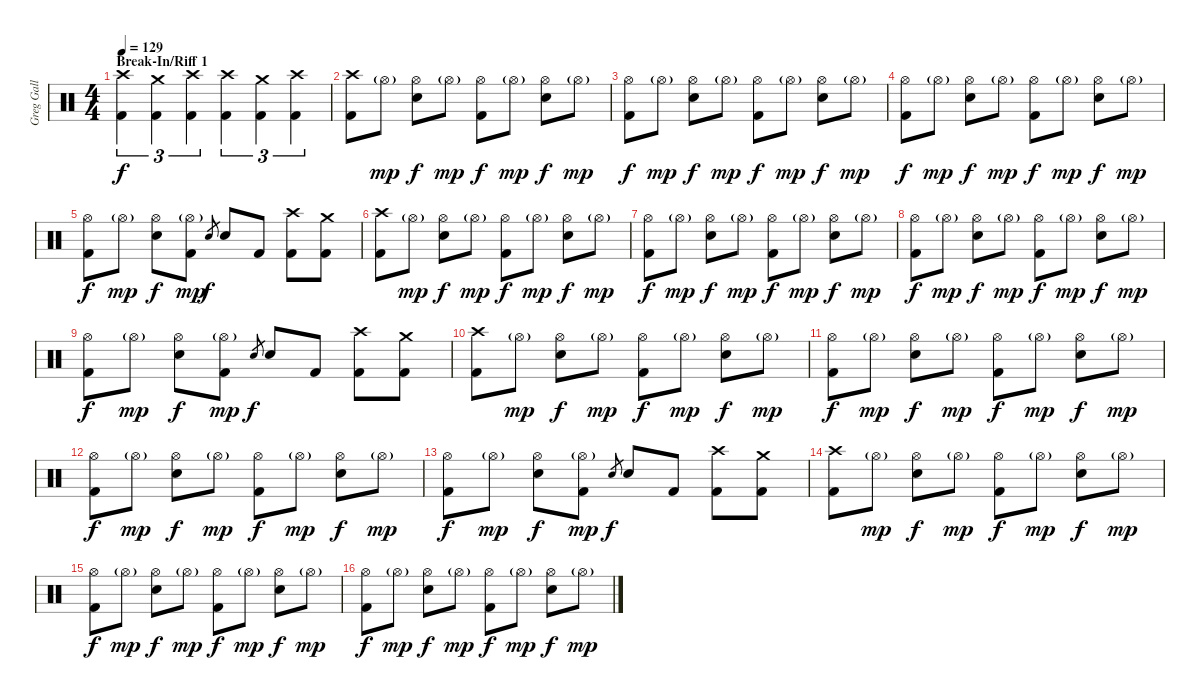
\track ("Greg Gall (Drums)" "Greg Gall ") {instrument percussion}
\staff {score}
\articulation defaults
\ts (4 4)
\section ("" "Break-In/Riff 1")
\tempo 129
\clef neutral
\ks c
("Crash high (hit)" "Kick (hit) 2").4{tu (3 2) dy f} ("Crash medium (hit)" "Kick (hit) 2").4{tu (3 2)} ("Crash high (hit)" "Kick (hit) 2").4{tu (3 2)} ("Crash high (hit)" "Kick (hit) 2").4{tu (3 2)} ("Crash medium (hit)" "Kick (hit) 2").4{tu (3 2)} ("Crash high (hit)" "Kick (hit) 2").4{tu (3 2)} |
("Crash high (hit)" "Kick (hit) 2").8 "Hi-Hat (open)"{g}.8{dy mp} ("Hi-Hat (open)" "Electric Snare (hit)").8{dy f} "Hi-Hat (open)"{g}.8{dy mp} ("Hi-Hat (open)" "Kick (hit) 2").8{dy f} "Hi-Hat (open)"{g}.8{dy mp} ("Hi-Hat (open)" "Electric Snare (hit)").8{dy f} "Hi-Hat (open)"{g}.8{dy mp} |
("Hi-Hat (open)" "Kick (hit) 2").8{dy f} "Hi-Hat (open)"{g}.8{dy mp} ("Hi-Hat (open)" "Electric Snare (hit)").8{dy f} "Hi-Hat (open)"{g}.8{dy mp} ("Hi-Hat (open)" "Kick (hit) 2").8{dy f} "Hi-Hat (open)"{g}.8{dy mp} ("Hi-Hat (open)" "Electric Snare (hit)").8{dy f} "Hi-Hat (open)"{g}.8{dy mp} |
("Hi-Hat (open)" "Kick (hit) 2").8{dy f} "Hi-Hat (open)"{g}.8{dy mp} ("Hi-Hat (open)" "Electric Snare (hit)").8{dy f} "Hi-Hat (open)"{g}.8{dy mp} ("Hi-Hat (open)" "Kick (hit) 2").8{dy f} "Hi-Hat (open)"{g}.8{dy mp} ("Hi-Hat (open)" "Electric Snare (hit)").8{dy f} "Hi-Hat (open)"{g}.8{dy mp} |
("Hi-Hat (open)" "Kick (hit) 2").8{dy f} "Hi-Hat (open)"{g}.8{dy mp} ("Hi-Hat (open)" "Electric Snare (hit)").8{dy f} ("Hi-Hat (open)"{g} "Kick (hit) 2").8{dy mp} "Electric Snare (hit)".8{gr dy f} "Electric Snare (hit)".8 "Kick (hit) 2".8 ("Crash high (hit)" "Kick (hit) 2").8 ("Crash medium (hit)" "Kick (hit) 2").8 |
("Crash high (hit)" "Kick (hit) 2").8 "Hi-Hat (open)"{g}.8{dy mp} ("Hi-Hat (open)" "Electric Snare (hit)").8{dy f} "Hi-Hat (open)"{g}.8{dy mp} ("Hi-Hat (open)" "Kick (hit) 2").8{dy f} "Hi-Hat (open)"{g}.8{dy mp} ("Hi-Hat (open)" "Electric Snare (hit)").8{dy f} "Hi-Hat (open)"{g}.8{dy mp} |
("Hi-Hat (open)" "Kick (hit) 2").8{dy f} "Hi-Hat (open)"{g}.8{dy mp} ("Hi-Hat (open)" "Electric Snare (hit)").8{dy f} "Hi-Hat (open)"{g}.8{dy mp} ("Hi-Hat (open)" "Kick (hit) 2").8{dy f} "Hi-Hat (open)"{g}.8{dy mp} ("Hi-Hat (open)" "Electric Snare (hit)").8{dy f} "Hi-Hat (open)"{g}.8{dy mp} |
("Hi-Hat (open)" "Kick (hit) 2").8{dy f} "Hi-Hat (open)"{g}.8{dy mp} ("Hi-Hat (open)" "Electric Snare (hit)").8{dy f} "Hi-Hat (open)"{g}.8{dy mp} ("Hi-Hat (open)" "Kick (hit) 2").8{dy f} "Hi-Hat (open)"{g}.8{dy mp} ("Hi-Hat (open)" "Electric Snare (hit)").8{dy f} "Hi-Hat (open)"{g}.8{dy mp} |
("Hi-Hat (open)" "Kick (hit) 2").8{dy f} "Hi-Hat (open)"{g}.8{dy mp} ("Hi-Hat (open)" "Electric Snare (hit)").8{dy f} ("Hi-Hat (open)"{g} "Kick (hit) 2").8{dy mp} "Electric Snare (hit)".8{gr dy f} "Electric Snare (hit)".8 "Kick (hit) 2".8 ("Crash high (hit)" "Kick (hit) 2").8 ("Crash medium (hit)" "Kick (hit) 2").8 |
("Crash high (hit)" "Kick (hit) 2").8 "Hi-Hat (open)"{g}.8{dy mp} ("Hi-Hat (open)" "Electric Snare (hit)").8{dy f} "Hi-Hat (open)"{g}.8{dy mp} ("Hi-Hat (open)" "Kick (hit) 2").8{dy f} "Hi-Hat (open)"{g}.8{dy mp} ("Hi-Hat (open)" "Electric Snare (hit)").8{dy f} "Hi-Hat (open)"{g}.8{dy mp} |
("Hi-Hat (open)" "Kick (hit) 2").8{dy f} "Hi-Hat (open)"{g}.8{dy mp} ("Hi-Hat (open)" "Electric Snare (hit)").8{dy f} "Hi-Hat (open)"{g}.8{dy mp} ("Hi-Hat (open)" "Kick (hit) 2").8{dy f} "Hi-Hat (open)"{g}.8{dy mp} ("Hi-Hat (open)" "Electric Snare (hit)").8{dy f} "Hi-Hat (open)"{g}.8{dy mp} |
("Hi-Hat (open)" "Kick (hit) 2").8{dy f} "Hi-Hat (open)"{g}.8{dy mp} ("Hi-Hat (open)" "Electric Snare (hit)").8{dy f} "Hi-Hat (open)"{g}.8{dy mp} ("Hi-Hat (open)" "Kick (hit) 2").8{dy f} "Hi-Hat (open)"{g}.8{dy mp} ("Hi-Hat (open)" "Electric Snare (hit)").8{dy f} "Hi-Hat (open)"{g}.8{dy mp} |
("Hi-Hat (open)" "Kick (hit) 2").8{dy f} "Hi-Hat (open)"{g}.8{dy mp} ("Hi-Hat (open)" "Electric Snare (hit)").8{dy f} ("Hi-Hat (open)"{g} "Kick (hit) 2").8{dy mp} "Electric Snare (hit)".8{gr dy f} "Electric Snare (hit)".8 "Kick (hit) 2".8 ("Crash high (hit)" "Kick (hit) 2").8 ("Crash medium (hit)" "Kick (hit) 2").8 |
("Crash high (hit)" "Kick (hit) 2").8 "Hi-Hat (open)"{g}.8{dy mp} ("Hi-Hat (open)" "Electric Snare (hit)").8{dy f} "Hi-Hat (open)"{g}.8{dy mp} ("Hi-Hat (open)" "Kick (hit) 2").8{dy f} "Hi-Hat (open)"{g}.8{dy mp} ("Hi-Hat (open)" "Electric Snare (hit)").8{dy f} "Hi-Hat (open)"{g}.8{dy mp} |
("Hi-Hat (open)" "Kick (hit) 2").8{dy f} "Hi-Hat (open)"{g}.8{dy mp} ("Hi-Hat (open)" "Electric Snare (hit)").8{dy f} "Hi-Hat (open)"{g}.8{dy mp} ("Hi-Hat (open)" "Kick (hit) 2").8{dy f} "Hi-Hat (open)"{g}.8{dy mp} ("Hi-Hat (open)" "Electric Snare (hit)").8{dy f} "Hi-Hat (open)"{g}.8{dy mp} |
("Hi-Hat (open)" "Kick (hit) 2").8{dy f} "Hi-Hat (open)"{g}.8{dy mp} ("Hi-Hat (open)" "Electric Snare (hit)").8{dy f} "Hi-Hat (open)"{g}.8{dy mp} ("Hi-Hat (open)" "Kick (hit) 2").8{dy f} "Hi-Hat (open)"{g}.8{dy mp} ("Hi-Hat (open)" "Electric Snare (hit)").8{dy f} "Hi-Hat (open)"{g}.8{dy mp}
